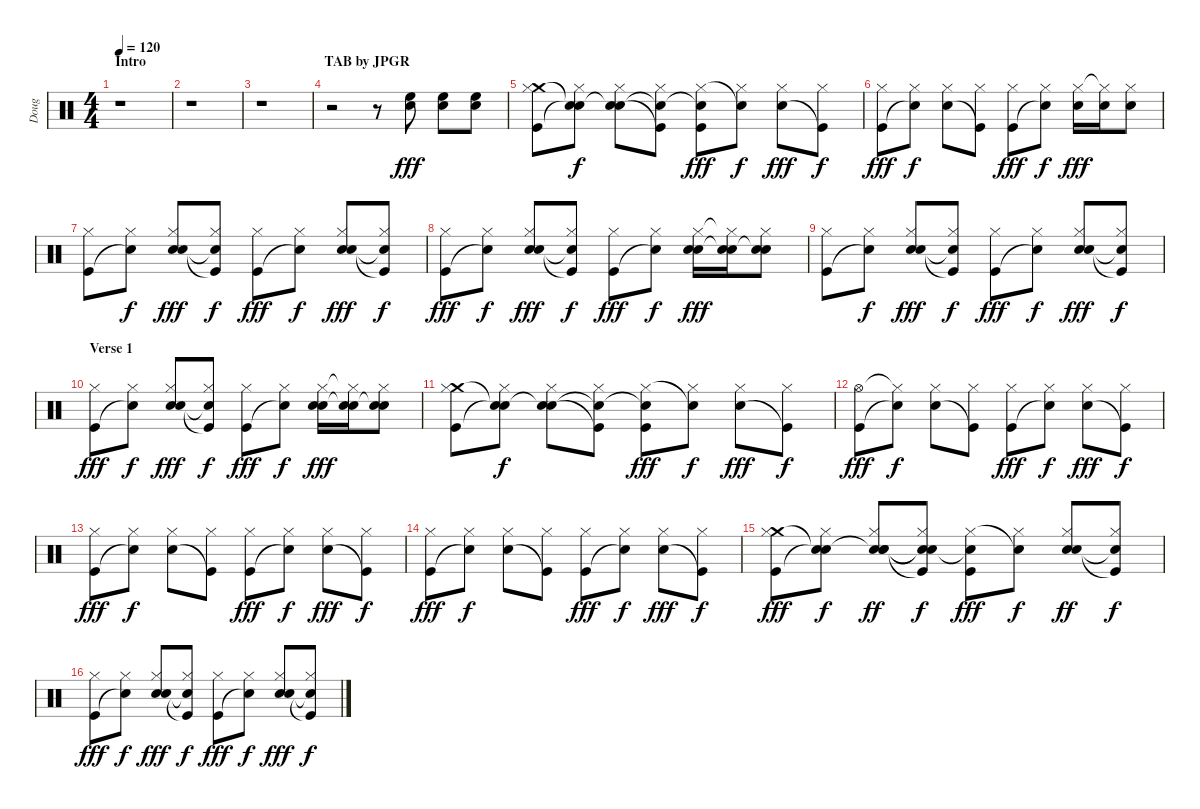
\track ("Doug" "Doug") {instrument percussion}
\staff {score}
\articulation defaults
\ts (4 4)
\section ("" "Intro                                                   TAB by JPGR")
\tempo 120
\clef neutral
\ks c
r.1{dy fff} |
r.1 |
r.1 |
r.2 r.8 ("High Floor Tom (hit)" "Snare (hit) 2").8 ("High Floor Tom (hit)" "Snare (hit) 2").8 ("High Floor Tom (hit)" "Snare (hit) 2").8 |
("Crash medium (hit)" "Hi-Hat (closed)" "Kick (hit)").8 ("Snare (hit)"{t} "Hi-Hat (closed)" "Snare (hit)"{t}).8{dy f} ("Snare (hit)"{t} "Hi-Hat (closed)" "Snare (hit) 2").8 ("Snare (hit)"{t} "Hi-Hat (closed)" "Kick (hit)"{t}).8 ("Snare (hit)"{t} "Hi-Hat (closed)" "Kick (hit)").8{dy fff} ("Hi-Hat (closed)" "Snare (hit)"{t}).8{dy f} ("Hi-Hat (closed)" "Snare (hit) 2").8{dy fff} ("Hi-Hat (closed)" "Kick (hit)"{t}).8{dy f} |
("Hi-Hat (closed)" "Kick (hit)").8{dy fff} ("Hi-Hat (closed)" "Snare (hit)"{t}).8{dy f} ("Hi-Hat (closed)" "Snare (hit) 2").8 ("Hi-Hat (closed)" "Kick (hit)"{t}).8 ("Hi-Hat (closed)" "Kick (hit)").8{dy fff} ("Hi-Hat (closed)" "Snare (hit)"{t}).8{dy f} ("Hi-Hat (closed)" "Snare (hit) 2").16{dy fff} ("Hi-Hat (closed)"{t} "Snare (hit) 2").16 ("Hi-Hat (closed)" "Snare (hit) 2").8 |
("Hi-Hat (closed)" "Kick (hit)").8 ("Hi-Hat (closed)" "Snare (hit)"{t}).8{dy f} ("Hand Clap (hit)" "Hi-Hat (closed)" "Snare (hit) 2").8{dy fff} ("Snare (hit)"{t} "Hi-Hat (closed)" "Kick (hit)"{t}).8{dy f} ("Hi-Hat (closed)" "Kick (hit)").8{dy fff} ("Hi-Hat (closed)" "Snare (hit)"{t}).8{dy f} ("Hand Clap (hit)" "Hi-Hat (closed)" "Snare (hit) 2").8{dy fff} ("Snare (hit)"{t} "Hi-Hat (closed)" "Kick (hit)"{t}).8{dy f} |
("Hi-Hat (closed)" "Kick (hit)").8{dy fff} ("Hi-Hat (closed)" "Snare (hit)"{t}).8{dy f} ("Hand Clap (hit)" "Hi-Hat (closed)" "Snare (hit) 2").8{dy fff} ("Snare (hit)"{t} "Hi-Hat (closed)" "Kick (hit)"{t}).8{dy f} ("Hi-Hat (closed)" "Kick (hit)").8{dy fff} ("Hi-Hat (closed)" "Snare (hit)"{t}).8{dy f} ("Hand Clap (hit)" "Hi-Hat (closed)" "Snare (hit) 2").16{dy fff} ("Snare (hit)"{t} "Hi-Hat (closed)"{t} "Snare (hit) 2").16 ("Snare (hit)"{t} "Hi-Hat (closed)" "Snare (hit) 2").8 |
("Hi-Hat (closed)" "Kick (hit)").8 ("Hi-Hat (closed)" "Snare (hit)"{t}).8{dy f} ("Hand Clap (hit)" "Hi-Hat (closed)" "Snare (hit) 2").8{dy fff} ("Snare (hit)"{t} "Hi-Hat (closed)" "Kick (hit)"{t}).8{dy f} ("Hi-Hat (closed)" "Kick (hit)").8{dy fff} ("Hi-Hat (closed)" "Snare (hit)"{t}).8{dy f} ("Hand Clap (hit)" "Hi-Hat (closed)" "Snare (hit) 2").8{dy fff} ("Snare (hit)"{t} "Hi-Hat (closed)" "Kick (hit)"{t}).8{dy f} |
\section ("" "Verse 1")
("Hi-Hat (closed)" "Kick (hit)").8{dy fff} ("Hi-Hat (closed)" "Snare (hit)"{t}).8{dy f} ("Hand Clap (hit)" "Hi-Hat (closed)" "Snare (hit) 2").8{dy fff} ("Snare (hit)"{t} "Hi-Hat (closed)" "Kick (hit)"{t}).8{dy f} ("Hi-Hat (closed)" "Kick (hit)").8{dy fff} ("Hi-Hat (closed)" "Snare (hit)"{t}).8{dy f} ("Hand Clap (hit)" "Hi-Hat (closed)" "Snare (hit) 2").16{dy fff} ("Snare (hit)"{t} "Hi-Hat (closed)"{t} "Snare (hit) 2").16 ("Snare (hit)"{t} "Hi-Hat (closed)" "Snare (hit) 2").8 |
("Crash medium (hit)" "Hi-Hat (closed)" "Kick (hit)").8 ("Snare (hit)"{t} "Hi-Hat (closed)" "Snare (hit)"{t}).8{dy f} ("Snare (hit)"{t} "Hi-Hat (closed)" "Snare (hit) 2").8 ("Snare (hit)"{t} "Hi-Hat (closed)" "Kick (hit)"{t}).8 ("Snare (hit)"{t} "Hi-Hat (closed)" "Kick (hit)").8{dy fff} ("Hi-Hat (closed)" "Snare (hit)"{t}).8{dy f} ("Hi-Hat (closed)" "Snare (hit) 2").8{dy fff} ("Hi-Hat (closed)" "Kick (hit)"{t}).8{dy f} |
("Hi-Hat (open)" "Kick (hit)").8{dy fff} ("Hi-Hat (closed)"{t} "Snare (hit)"{t}).8{dy f} ("Hi-Hat (closed)" "Snare (hit) 2").8 ("Hi-Hat (closed)" "Kick (hit)"{t}).8 ("Hi-Hat (closed)" "Kick (hit)").8{dy fff} ("Hi-Hat (closed)" "Snare (hit)"{t}).8{dy f} ("Hi-Hat (closed)" "Snare (hit) 2").8{dy fff} ("Hi-Hat (closed)" "Kick (hit)"{t}).8{dy f} |
("Hi-Hat (closed)" "Kick (hit)").8{dy fff} ("Hi-Hat (closed)" "Snare (hit)"{t}).8{dy f} ("Hi-Hat (closed)" "Snare (hit) 2").8 ("Hi-Hat (closed)" "Kick (hit)"{t}).8 ("Hi-Hat (closed)" "Kick (hit)").8{dy fff} ("Hi-Hat (closed)" "Snare (hit)"{t}).8{dy f} ("Hi-Hat (closed)" "Snare (hit) 2").8{dy fff} ("Hi-Hat (closed)" "Kick (hit)"{t}).8{dy f} |
("Hi-Hat (closed)" "Kick (hit)").8{dy fff} ("Hi-Hat (closed)" "Snare (hit)"{t}).8{dy f} ("Hi-Hat (closed)" "Snare (hit) 2").8 ("Hi-Hat (closed)" "Kick (hit)"{t}).8 ("Hi-Hat (closed)" "Kick (hit)").8{dy fff} ("Hi-Hat (closed)" "Snare (hit)"{t}).8{dy f} ("Hi-Hat (closed)" "Snare (hit) 2").8{dy fff} ("Hi-Hat (closed)" "Kick (hit)"{t}).8{dy f} |
("Crash medium (hit)" "Hi-Hat (closed)" "Kick (hit)").8{dy fff} ("Snare (hit)"{t} "Hi-Hat (closed)" "Snare (hit)"{t}).8{dy f} ("Hand Clap (hit)"{t} "Hi-Hat (closed)" "Snare (hit) 2" "Hand Clap (hit)").8{dy ff} ("Snare (hit)"{t} "Hi-Hat (closed)" "Kick (hit)"{t} "Snare (hit)"{t}).8{dy f} ("Snare (hit)"{t} "Hi-Hat (closed)" "Kick (hit)").8{dy fff} ("Hi-Hat (closed)" "Snare (hit)"{t}).8{dy f} ("Hi-Hat (closed)" "Snare (hit) 2" "Hand Clap (hit)").8{dy ff} ("Hi-Hat (closed)" "Kick (hit)"{t} "Snare (hit)"{t}).8{dy f} |
("Hi-Hat (closed)" "Kick (hit)").8{dy fff} ("Hi-Hat (closed)" "Snare (hit)"{t}).8{dy f} ("Hand Clap (hit)" "Hi-Hat (closed)" "Snare (hit) 2").8{dy fff} ("Snare (hit)"{t} "Hi-Hat (closed)" "Kick (hit)"{t}).8{dy f} ("Hi-Hat (closed)" "Kick (hit)").8{dy fff} ("Hi-Hat (closed)" "Snare (hit)"{t}).8{dy f} ("Hand Clap (hit)" "Hi-Hat (closed)" "Snare (hit) 2").8{dy fff} ("Snare (hit)"{t} "Hi-Hat (closed)" "Kick (hit)"{t}).8{dy f}
